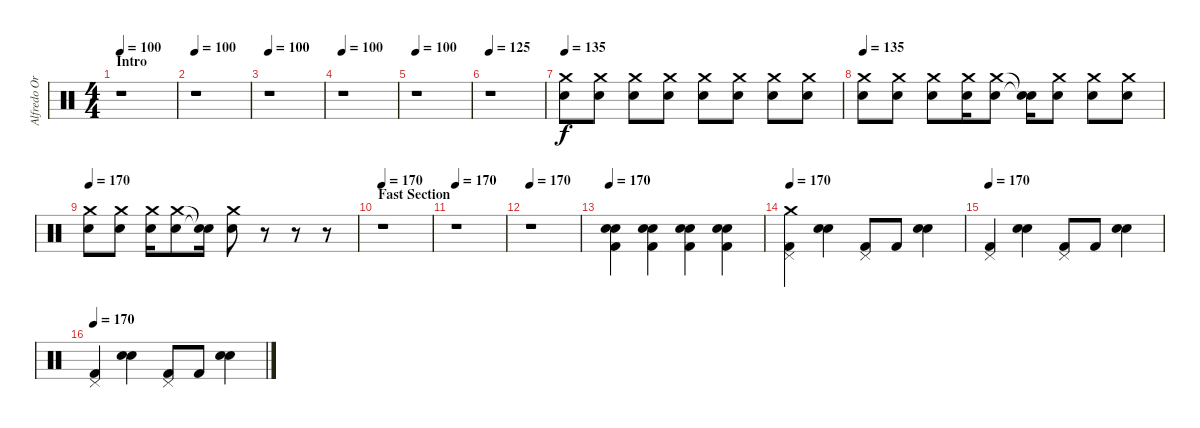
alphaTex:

\track ("Alfredo Ortiz (Drums)" "Alfredo Or") {instrument percussion}
\staff {score}
\articulation defaults
\ts (4 4)
\section ("" "Intro")
\tempo 100
\clef neutral
\ks c
r.1{dy f volume 0} |
\tempo 100
r.1 |
\tempo 100
r.1 |
\tempo 100
r.1 |
\tempo 100
r.1 |
\tempo 125
r.1{volume 0} |
\tempo 135
("Snare (hit) 2" "Crash medium (hit)").8{volume 11} ("Snare (hit) 2" "Crash medium (hit)").8 ("Snare (hit) 2" "Crash medium (hit)").8 ("Snare (hit) 2" "Crash medium (hit)").8 ("Snare (hit) 2" "Crash medium (hit)").8 ("Snare (hit) 2" "Crash medium (hit)").8 ("Snare (hit) 2" "Crash medium (hit)").8 ("Snare (hit) 2" "Crash medium (hit)").8 |
\tempo 135
("Snare (hit) 2" "Crash medium (hit)").8 ("Snare (hit) 2" "Crash medium (hit)").8 ("Snare (hit) 2" "Crash medium (hit)").8 ("Snare (hit) 2" "Crash medium (hit)").16 ("Snare (hit) 2" "Crash medium (hit)").8 ("Snare (hit)"{t} "Snare (hit)"{t}).16 ("Snare (hit) 2" "Crash medium (hit)").8 ("Snare (hit) 2" "Crash medium (hit)").8 ("Snare (hit) 2" "Crash medium (hit)").8 |
\tempo 170
("Snare (hit) 2" "Crash medium (hit)").8 ("Snare (hit) 2" "Crash medium (hit)").8 ("Snare (hit) 2" "Crash medium (hit)").16 ("Snare (hit) 2" "Crash medium (hit)").8 ("Snare (hit)"{t} "Snare (hit)"{t}).16 ("Snare (hit) 2" "Crash medium (hit)").8 r.8 r.8 r.8 |
\section ("" "Fast Section")
\tempo 170
r.1 |
\tempo 170
r.1 |
\tempo 170
r.1 |
\tempo 170
("Kick (hit) 2" "Snare (hit) 2" "Electric Snare (hit)").4 ("Kick (hit) 2" "Snare (hit) 2" "Electric Snare (hit)").4 ("Kick (hit) 2" "Snare (hit) 2" "Electric Snare (hit)").4 ("Kick (hit) 2" "Snare (hit) 2" "Electric Snare (hit)").4 |
\tempo 170
("Kick (hit) 2" "Pedal Hi-Hat (hit)" "Crash medium (hit)").4 ("Snare (hit) 2" "Electric Snare (hit)").4 ("Kick (hit) 2" "Pedal Hi-Hat (hit)").8 "Kick (hit) 2".8 ("Snare (hit) 2" "Electric Snare (hit)").4 |
\tempo 170
("Kick (hit) 2" "Pedal Hi-Hat (hit)").4 ("Snare (hit) 2" "Electric Snare (hit)").4 ("Kick (hit) 2" "Pedal Hi-Hat (hit)").8 "Kick (hit) 2".8 ("Snare (hit) 2" "Electric Snare (hit)").4 |
\tempo 170
("Kick (hit) 2" "Pedal Hi-Hat (hit)").4 ("Snare (hit) 2" "Electric Snare (hit)").4 ("Kick (hit) 2" "Pedal Hi-Hat (hit)").8 "Kick (hit) 2".8 ("Snare (hit) 2" "Electric Snare (hit)").4
